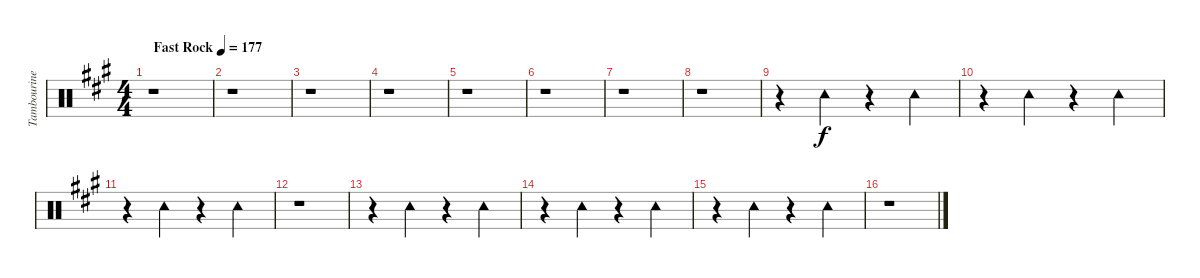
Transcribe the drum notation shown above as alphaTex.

\track ("Tambourine" "Tambourine") {instrument percussion}
\staff {score}
\articulation defaults
\ts (4 4)
\tempo (177 "Fast Rock")
\clef neutral
\ks a
r.1{dy f} |
r.1 |
r.1 |
r.1 |
r.1 |
r.1 |
r.1 |
r.1 |
r.4 "Tambourine (hit)".4 r.4 "Tambourine (hit)".4 |
r.4 "Tambourine (hit)".4 r.4 "Tambourine (hit)".4 |
r.4 "Tambourine (hit)".4 r.4 "Tambourine (hit)".4 |
r.1 |
r.4 "Tambourine (hit)".4 r.4 "Tambourine (hit)".4 |
r.4 "Tambourine (hit)".4 r.4 "Tambourine (hit)".4 |
r.4 "Tambourine (hit)".4 r.4 "Tambourine (hit)".4 |
r.1
